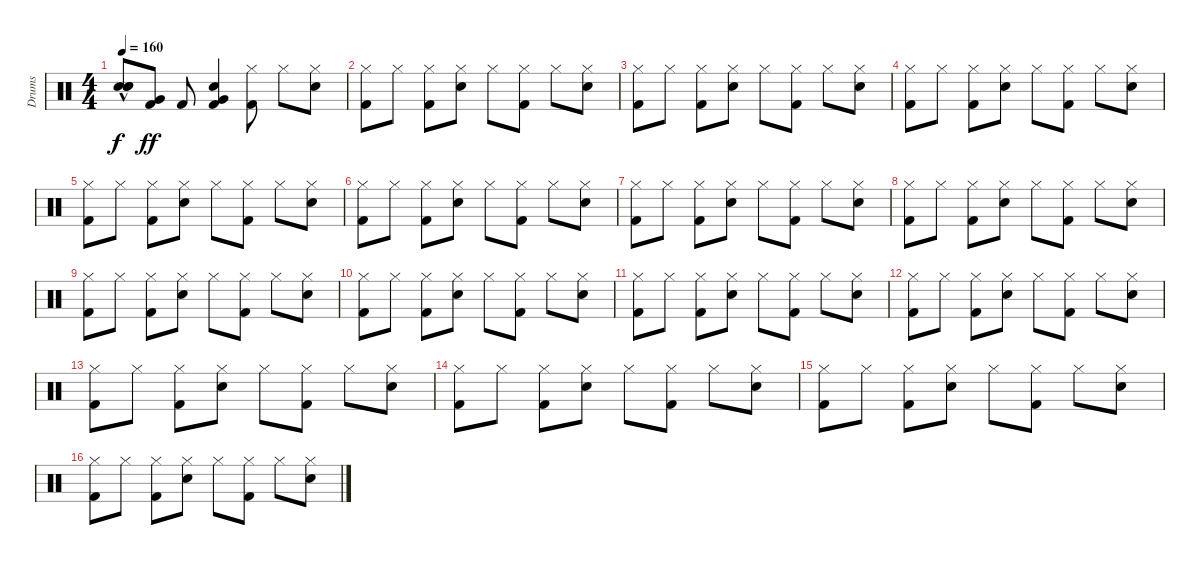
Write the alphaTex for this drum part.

\track ("Drums" "Drums") {instrument percussion}
\staff {score}
\articulation defaults
\ts (4 4)
\tempo 160
\clef neutral
\ks c
("Snare (hit)"{hac t} "Snare (hit)"{hac t} "Snare (hit)"{hac t}).8{dy f} ("Kick (hit) 2" "Very Low Tom (hit)").8{dy ff} "Kick (hit) 2".8 ("Kick (hit) 2" "Snare (hit) 2" "Very Low Tom (hit)").4 ("Kick (hit) 2" "Hi-Hat (closed)").8 "Hi-Hat (closed)".8 ("Snare (hit) 2" "Hi-Hat (closed)").8 |
("Kick (hit) 2" "Hi-Hat (closed)").8 "Hi-Hat (closed)".8 ("Kick (hit) 2" "Hi-Hat (closed)").8 ("Snare (hit) 2" "Hi-Hat (closed)").8 "Hi-Hat (closed)".8 ("Kick (hit) 2" "Hi-Hat (closed)").8 "Hi-Hat (closed)".8 ("Snare (hit) 2" "Hi-Hat (closed)").8 |
("Kick (hit) 2" "Hi-Hat (closed)").8 "Hi-Hat (closed)".8 ("Kick (hit) 2" "Hi-Hat (closed)").8 ("Snare (hit) 2" "Hi-Hat (closed)").8 "Hi-Hat (closed)".8 ("Kick (hit) 2" "Hi-Hat (closed)").8 "Hi-Hat (closed)".8 ("Snare (hit) 2" "Hi-Hat (closed)").8 |
("Kick (hit) 2" "Hi-Hat (closed)").8 "Hi-Hat (closed)".8 ("Kick (hit) 2" "Hi-Hat (closed)").8 ("Snare (hit) 2" "Hi-Hat (closed)").8 "Hi-Hat (closed)".8 ("Kick (hit) 2" "Hi-Hat (closed)").8 "Hi-Hat (closed)".8 ("Snare (hit) 2" "Hi-Hat (closed)").8 |
("Kick (hit) 2" "Hi-Hat (closed)").8 "Hi-Hat (closed)".8 ("Kick (hit) 2" "Hi-Hat (closed)").8 ("Snare (hit) 2" "Hi-Hat (closed)").8 "Hi-Hat (closed)".8 ("Kick (hit) 2" "Hi-Hat (closed)").8 "Hi-Hat (closed)".8 ("Snare (hit) 2" "Hi-Hat (closed)").8 |
("Kick (hit) 2" "Hi-Hat (closed)").8 "Hi-Hat (closed)".8 ("Kick (hit) 2" "Hi-Hat (closed)").8 ("Snare (hit) 2" "Hi-Hat (closed)").8 "Hi-Hat (closed)".8 ("Kick (hit) 2" "Hi-Hat (closed)").8 "Hi-Hat (closed)".8 ("Snare (hit) 2" "Hi-Hat (closed)").8 |
("Kick (hit) 2" "Hi-Hat (closed)").8 "Hi-Hat (closed)".8 ("Kick (hit) 2" "Hi-Hat (closed)").8 ("Snare (hit) 2" "Hi-Hat (closed)").8 "Hi-Hat (closed)".8 ("Kick (hit) 2" "Hi-Hat (closed)").8 "Hi-Hat (closed)".8 ("Snare (hit) 2" "Hi-Hat (closed)").8 |
("Kick (hit) 2" "Hi-Hat (closed)").8 "Hi-Hat (closed)".8 ("Kick (hit) 2" "Hi-Hat (closed)").8 ("Snare (hit) 2" "Hi-Hat (closed)").8 "Hi-Hat (closed)".8 ("Kick (hit) 2" "Hi-Hat (closed)").8 "Hi-Hat (closed)".8 ("Snare (hit) 2" "Hi-Hat (closed)").8 |
("Kick (hit) 2" "Hi-Hat (closed)").8 "Hi-Hat (closed)".8 ("Kick (hit) 2" "Hi-Hat (closed)").8 ("Snare (hit) 2" "Hi-Hat (closed)").8 "Hi-Hat (closed)".8 ("Kick (hit) 2" "Hi-Hat (closed)").8 "Hi-Hat (closed)".8 ("Snare (hit) 2" "Hi-Hat (closed)").8 |
("Kick (hit) 2" "Hi-Hat (closed)").8 "Hi-Hat (closed)".8 ("Kick (hit) 2" "Hi-Hat (closed)").8 ("Snare (hit) 2" "Hi-Hat (closed)").8 "Hi-Hat (closed)".8 ("Kick (hit) 2" "Hi-Hat (closed)").8 "Hi-Hat (closed)".8 ("Snare (hit) 2" "Hi-Hat (closed)").8 |
("Kick (hit) 2" "Hi-Hat (closed)").8 "Hi-Hat (closed)".8 ("Kick (hit) 2" "Hi-Hat (closed)").8 ("Snare (hit) 2" "Hi-Hat (closed)").8 "Hi-Hat (closed)".8 ("Kick (hit) 2" "Hi-Hat (closed)").8 "Hi-Hat (closed)".8 ("Snare (hit) 2" "Hi-Hat (closed)").8 |
("Kick (hit) 2" "Hi-Hat (closed)").8 "Hi-Hat (closed)".8 ("Kick (hit) 2" "Hi-Hat (closed)").8 ("Snare (hit) 2" "Hi-Hat (closed)").8 "Hi-Hat (closed)".8 ("Kick (hit) 2" "Hi-Hat (closed)").8 "Hi-Hat (closed)".8 ("Snare (hit) 2" "Hi-Hat (closed)").8 |
("Kick (hit) 2" "Hi-Hat (closed)").8 "Hi-Hat (closed)".8 ("Kick (hit) 2" "Hi-Hat (closed)").8 ("Snare (hit) 2" "Hi-Hat (closed)").8 "Hi-Hat (closed)".8 ("Kick (hit) 2" "Hi-Hat (closed)").8 "Hi-Hat (closed)".8 ("Snare (hit) 2" "Hi-Hat (closed)").8 |
("Kick (hit) 2" "Hi-Hat (closed)").8 "Hi-Hat (closed)".8 ("Kick (hit) 2" "Hi-Hat (closed)").8 ("Snare (hit) 2" "Hi-Hat (closed)").8 "Hi-Hat (closed)".8 ("Kick (hit) 2" "Hi-Hat (closed)").8 "Hi-Hat (closed)".8 ("Snare (hit) 2" "Hi-Hat (closed)").8 |
("Kick (hit) 2" "Hi-Hat (closed)").8 "Hi-Hat (closed)".8 ("Kick (hit) 2" "Hi-Hat (closed)").8 ("Snare (hit) 2" "Hi-Hat (closed)").8 "Hi-Hat (closed)".8 ("Kick (hit) 2" "Hi-Hat (closed)").8 "Hi-Hat (closed)".8 ("Snare (hit) 2" "Hi-Hat (closed)").8 |
("Kick (hit) 2" "Hi-Hat (closed)").8 "Hi-Hat (closed)".8 ("Kick (hit) 2" "Hi-Hat (closed)").8 ("Snare (hit) 2" "Hi-Hat (closed)").8 "Hi-Hat (closed)".8 ("Kick (hit) 2" "Hi-Hat (closed)").8 "Hi-Hat (closed)".8 ("Snare (hit) 2" "Hi-Hat (closed)").8
